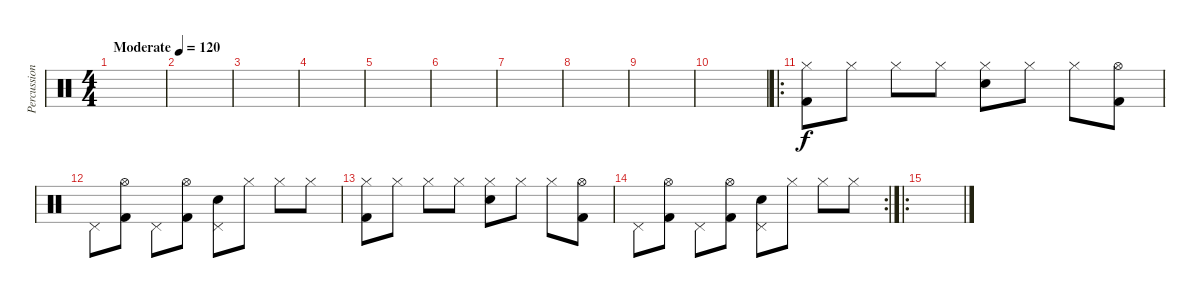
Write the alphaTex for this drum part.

\track ("Percussion" "Percussion") {instrument percussion}
\staff {score}
\articulation defaults
\ts (4 4)
\tempo (120 "Moderate")
\clef neutral
\ks c
|
|
|
|
|
|
|
|
|
|
\ro
("Hi-Hat (closed)" "Kick (hit) 2").8 "Hi-Hat (closed)".8 "Hi-Hat (closed)".8 "Hi-Hat (closed)".8 ("Hi-Hat (closed)" "Snare (hit) 2").8 "Hi-Hat (closed)".8 "Hi-Hat (closed)".8 ("Hi-Hat (open)" "Kick (hit) 2").8 |
"Pedal Hi-Hat (hit)".8 ("Hi-Hat (open)" "Kick (hit) 2").8 "Pedal Hi-Hat (hit)".8 ("Hi-Hat (open)" "Kick (hit) 2").8 ("Pedal Hi-Hat (hit)" "Snare (hit) 2").8 "Hi-Hat (closed)".8 "Hi-Hat (closed)".8 "Hi-Hat (closed)".8 |
("Hi-Hat (closed)" "Kick (hit) 2").8 "Hi-Hat (closed)".8 "Hi-Hat (closed)".8 "Hi-Hat (closed)".8 ("Hi-Hat (closed)" "Snare (hit) 2").8 "Hi-Hat (closed)".8 "Hi-Hat (closed)".8 ("Hi-Hat (open)" "Kick (hit) 2").8 |
\rc 2 "Pedal Hi-Hat (hit)".8
("Hi-Hat (open)" "Kick (hit) 2").8 "Pedal Hi-Hat (hit)".8 ("Hi-Hat (open)" "Kick (hit) 2").8 ("Pedal Hi-Hat (hit)" "Snare (hit) 2").8 "Hi-Hat (closed)".8 "Hi-Hat (closed)".8 "Hi-Hat (closed)".8 |
\ro
